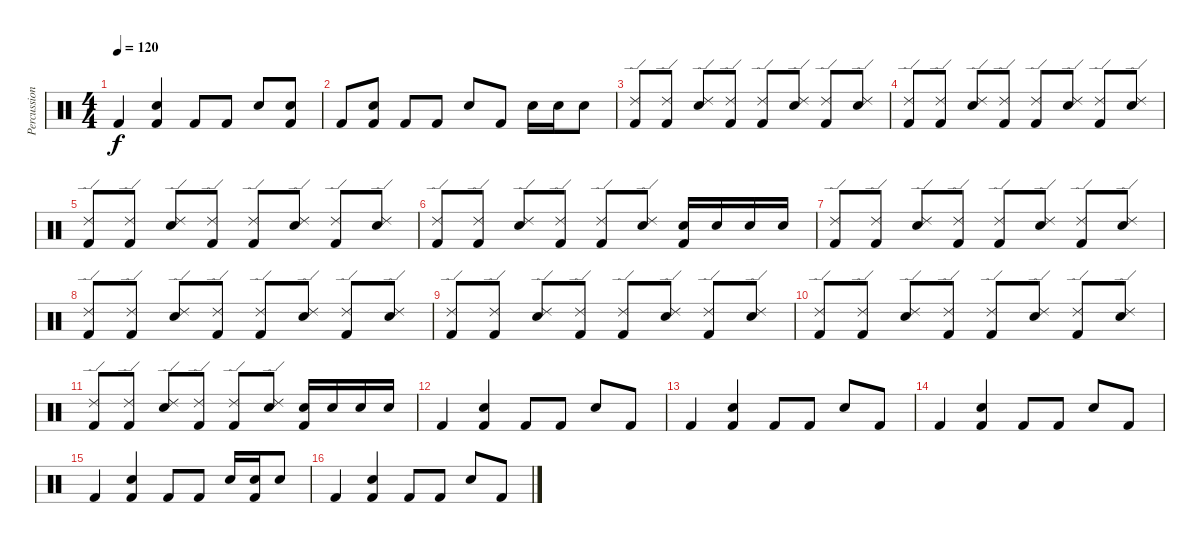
\track ("Percussion" "Percussion") {instrument percussion}
\staff {score}
\articulation defaults
\ts (4 4)
\tempo 120
\clef neutral
\ks c "Kick (hit) 2".4{dy f}
("Kick (hit) 2" "Snare (hit) 2").4 "Kick (hit) 2".8 "Kick (hit) 2".8 "Snare (hit) 2".8 ("Kick (hit) 2" "Snare (hit) 2").8 |
"Kick (hit) 2".8 ("Kick (hit) 2" "Snare (hit) 2").8 "Kick (hit) 2".8 "Kick (hit) 2".8 "Snare (hit) 2".8 "Kick (hit) 2".8 "Snare (hit) 2".16 "Snare (hit) 2".16 "Snare (hit) 2".8 |
("Kick (hit) 2" "Ride (edge) 2").8 ("Kick (hit) 2" "Ride (edge) 2").8 ("Snare (hit) 2" "Ride (edge) 2").8 ("Kick (hit) 2" "Ride (edge) 2").8 ("Kick (hit) 2" "Ride (edge) 2").8 ("Snare (hit) 2" "Ride (edge) 2").8 ("Kick (hit) 2" "Ride (edge) 2").8 ("Snare (hit) 2" "Ride (edge) 2").8 |
("Kick (hit) 2" "Ride (edge) 2").8 ("Kick (hit) 2" "Ride (edge) 2").8 ("Snare (hit) 2" "Ride (edge) 2").8 ("Kick (hit) 2" "Ride (edge) 2").8 ("Kick (hit) 2" "Ride (edge) 2").8 ("Snare (hit) 2" "Ride (edge) 2").8 ("Kick (hit) 2" "Ride (edge) 2").8 ("Snare (hit) 2" "Ride (edge) 2").8 |
("Kick (hit) 2" "Ride (edge) 2").8 ("Kick (hit) 2" "Ride (edge) 2").8 ("Snare (hit) 2" "Ride (edge) 2").8 ("Kick (hit) 2" "Ride (edge) 2").8 ("Kick (hit) 2" "Ride (edge) 2").8 ("Snare (hit) 2" "Ride (edge) 2").8 ("Kick (hit) 2" "Ride (edge) 2").8 ("Snare (hit) 2" "Ride (edge) 2").8 |
("Kick (hit) 2" "Ride (edge) 2").8 ("Kick (hit) 2" "Ride (edge) 2").8 ("Snare (hit) 2" "Ride (edge) 2").8 ("Kick (hit) 2" "Ride (edge) 2").8 ("Kick (hit) 2" "Ride (edge) 2").8 ("Snare (hit) 2" "Ride (edge) 2").8 ("Kick (hit) 2" "Snare (hit) 2").16 "Snare (hit) 2".16 "Snare (hit) 2".16 "Snare (hit) 2".16 |
("Kick (hit) 2" "Ride (edge) 2").8 ("Kick (hit) 2" "Ride (edge) 2").8 ("Snare (hit) 2" "Ride (edge) 2").8 ("Kick (hit) 2" "Ride (edge) 2").8 ("Kick (hit) 2" "Ride (edge) 2").8 ("Snare (hit) 2" "Ride (edge) 2").8 ("Kick (hit) 2" "Ride (edge) 2").8 ("Snare (hit) 2" "Ride (edge) 2").8 |
("Kick (hit) 2" "Ride (edge) 2").8 ("Kick (hit) 2" "Ride (edge) 2").8 ("Snare (hit) 2" "Ride (edge) 2").8 ("Kick (hit) 2" "Ride (edge) 2").8 ("Kick (hit) 2" "Ride (edge) 2").8 ("Snare (hit) 2" "Ride (edge) 2").8 ("Kick (hit) 2" "Ride (edge) 2").8 ("Snare (hit) 2" "Ride (edge) 2").8 |
("Kick (hit) 2" "Ride (edge) 2").8 ("Kick (hit) 2" "Ride (edge) 2").8 ("Snare (hit) 2" "Ride (edge) 2").8 ("Kick (hit) 2" "Ride (edge) 2").8 ("Kick (hit) 2" "Ride (edge) 2").8 ("Snare (hit) 2" "Ride (edge) 2").8 ("Kick (hit) 2" "Ride (edge) 2").8 ("Snare (hit) 2" "Ride (edge) 2").8 |
("Kick (hit) 2" "Ride (edge) 2").8 ("Kick (hit) 2" "Ride (edge) 2").8 ("Snare (hit) 2" "Ride (edge) 2").8 ("Kick (hit) 2" "Ride (edge) 2").8 ("Kick (hit) 2" "Ride (edge) 2").8 ("Snare (hit) 2" "Ride (edge) 2").8 ("Kick (hit) 2" "Ride (edge) 2").8 ("Snare (hit) 2" "Ride (edge) 2").8 |
("Kick (hit) 2" "Ride (edge) 2").8 ("Kick (hit) 2" "Ride (edge) 2").8 ("Snare (hit) 2" "Ride (edge) 2").8 ("Kick (hit) 2" "Ride (edge) 2").8 ("Kick (hit) 2" "Ride (edge) 2").8 ("Snare (hit) 2" "Ride (edge) 2").8 ("Kick (hit) 2" "Snare (hit) 2").16 "Snare (hit) 2".16 "Snare (hit) 2".16 "Snare (hit) 2".16 |
"Kick (hit) 2".4 ("Kick (hit) 2" "Snare (hit) 2").4 "Kick (hit) 2".8 "Kick (hit) 2".8 "Snare (hit) 2".8 "Kick (hit) 2".8 |
"Kick (hit) 2".4 ("Kick (hit) 2" "Snare (hit) 2").4 "Kick (hit) 2".8 "Kick (hit) 2".8 "Snare (hit) 2".8 "Kick (hit) 2".8 |
"Kick (hit) 2".4 ("Kick (hit) 2" "Snare (hit) 2").4 "Kick (hit) 2".8 "Kick (hit) 2".8 "Snare (hit) 2".8 "Kick (hit) 2".8 |
"Kick (hit) 2".4 ("Kick (hit) 2" "Snare (hit) 2").4 "Kick (hit) 2".8 "Kick (hit) 2".8 "Snare (hit) 2".16 ("Kick (hit) 2" "Snare (hit) 2").16 "Snare (hit) 2".8 |
"Kick (hit) 2".4 ("Kick (hit) 2" "Snare (hit) 2").4 "Kick (hit) 2".8 "Kick (hit) 2".8 "Snare (hit) 2".8 "Kick (hit) 2".8
